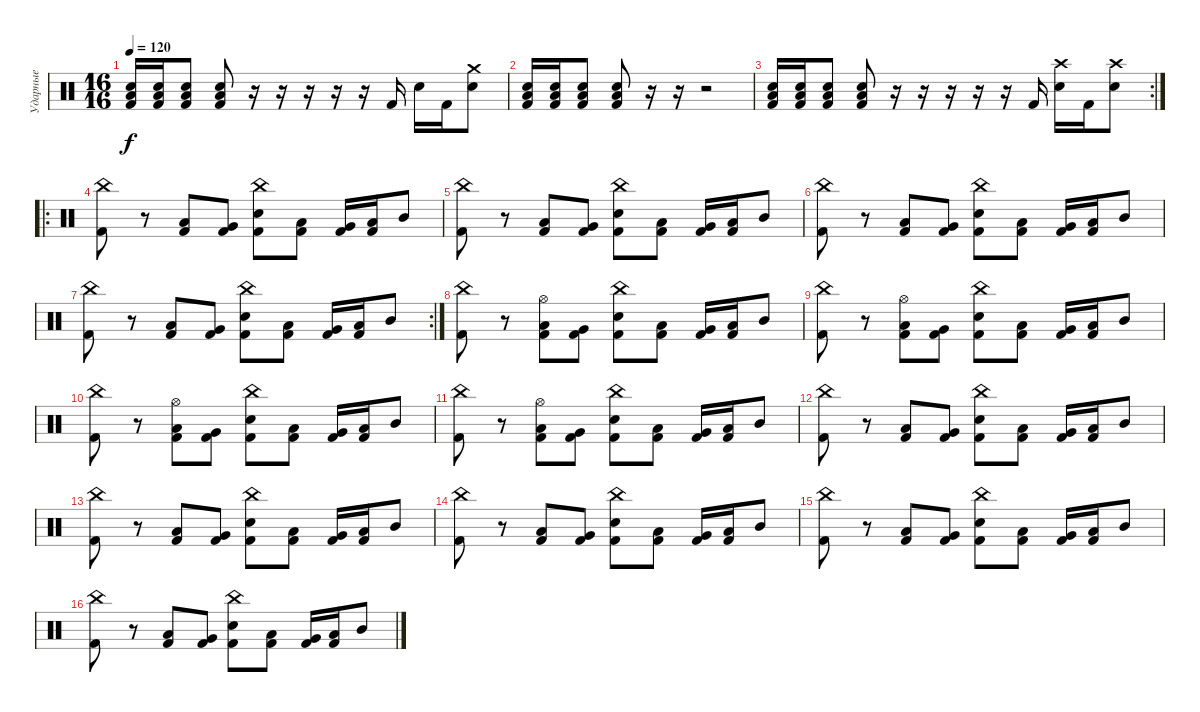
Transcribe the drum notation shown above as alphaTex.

\track ("Ударные" "Ударные") {instrument percussion}
\staff {score}
\articulation defaults
\ts (16 16)
\tempo 120
\clef neutral
\ks c
("Electric Snare (hit)" "Low Floor Tom (hit)" "Kick (hit) 2").16{dy f} ("Electric Snare (hit)" "Low Floor Tom (hit)" "Kick (hit) 2").16 ("Electric Snare (hit)" "Low Floor Tom (hit)" "Kick (hit) 2").8 ("Electric Snare (hit)" "Low Floor Tom (hit)" "Kick (hit) 2").8 r.16 r.16 r.16 r.16 r.16 "Kick (hit) 2".16 "Electric Snare (hit)".16 "Kick (hit) 2".16 ("Crash medium (hit)" "Electric Snare (hit)").8 |
("Electric Snare (hit)" "Low Floor Tom (hit)" "Kick (hit) 2").16 ("Electric Snare (hit)" "Low Floor Tom (hit)" "Kick (hit) 2").16 ("Electric Snare (hit)" "Low Floor Tom (hit)" "Kick (hit) 2").8 ("Electric Snare (hit)" "Low Floor Tom (hit)" "Kick (hit) 2").8 r.16 r.16 r.2 |
\rc 2
("Electric Snare (hit)" "Low Floor Tom (hit)" "Kick (hit) 2").16 ("Electric Snare (hit)" "Low Floor Tom (hit)" "Kick (hit) 2").16 ("Electric Snare (hit)" "Low Floor Tom (hit)" "Kick (hit) 2").8 ("Electric Snare (hit)" "Low Floor Tom (hit)" "Kick (hit) 2").8 r.16 r.16 r.16 r.16 r.16 "Kick (hit) 2".16 ("Crash high (hit)" "Electric Snare (hit)").16 "Kick (hit) 2".16 ("Crash high (hit)" "Electric Snare (hit)").8 |
\ro
("China (hit)" "Kick (hit) 2").8 r.8 ("Low Tom (hit)" "Kick (hit) 2").8 ("Very Low Tom (hit)" "Kick (hit) 2").8 ("China (hit)" "Electric Snare (hit)" "Kick (hit) 2").8 ("Low Tom (hit)" "Kick (hit) 2").8 ("Very Low Tom (hit)" "Kick (hit) 2").16 ("Low Tom (hit)" "Kick (hit) 2").16 "Mid Tom (hit)".8 |
("China (hit)" "Kick (hit) 2").8 r.8 ("Low Tom (hit)" "Kick (hit) 2").8 ("Very Low Tom (hit)" "Kick (hit) 2").8 ("China (hit)" "Electric Snare (hit)" "Kick (hit) 2").8 ("Low Tom (hit)" "Kick (hit) 2").8 ("Very Low Tom (hit)" "Kick (hit) 2").16 ("Low Tom (hit)" "Kick (hit) 2").16 "Mid Tom (hit)".8 |
("China (hit)" "Kick (hit) 2").8 r.8 ("Low Tom (hit)" "Kick (hit) 2").8 ("Very Low Tom (hit)" "Kick (hit) 2").8 ("China (hit)" "Electric Snare (hit)" "Kick (hit) 2").8 ("Low Tom (hit)" "Kick (hit) 2").8 ("Very Low Tom (hit)" "Kick (hit) 2").16 ("Low Tom (hit)" "Kick (hit) 2").16 "Mid Tom (hit)".8 |
\rc 2
("China (hit)" "Kick (hit) 2").8 r.8 ("Low Tom (hit)" "Kick (hit) 2").8 ("Very Low Tom (hit)" "Kick (hit) 2").8 ("China (hit)" "Electric Snare (hit)" "Kick (hit) 2").8 ("Low Tom (hit)" "Kick (hit) 2").8 ("Very Low Tom (hit)" "Kick (hit) 2").16 ("Low Tom (hit)" "Kick (hit) 2").16 "Mid Tom (hit)".8 |
("China (hit)" "Kick (hit) 2").8 r.8 ("Hi-Hat (open)" "Low Tom (hit)" "Kick (hit) 2").8 ("Very Low Tom (hit)" "Kick (hit) 2").8 ("China (hit)" "Electric Snare (hit)" "Kick (hit) 2").8 ("Low Tom (hit)" "Kick (hit) 2").8 ("Very Low Tom (hit)" "Kick (hit) 2").16 ("Low Tom (hit)" "Kick (hit) 2").16 "Mid Tom (hit)".8 |
("China (hit)" "Kick (hit) 2").8 r.8 ("Hi-Hat (open)" "Low Tom (hit)" "Kick (hit) 2").8 ("Very Low Tom (hit)" "Kick (hit) 2").8 ("China (hit)" "Electric Snare (hit)" "Kick (hit) 2").8 ("Low Tom (hit)" "Kick (hit) 2").8 ("Very Low Tom (hit)" "Kick (hit) 2").16 ("Low Tom (hit)" "Kick (hit) 2").16 "Mid Tom (hit)".8 |
("China (hit)" "Kick (hit) 2").8 r.8 ("Hi-Hat (open)" "Low Tom (hit)" "Kick (hit) 2").8 ("Very Low Tom (hit)" "Kick (hit) 2").8 ("China (hit)" "Electric Snare (hit)" "Kick (hit) 2").8 ("Low Tom (hit)" "Kick (hit) 2").8 ("Very Low Tom (hit)" "Kick (hit) 2").16 ("Low Tom (hit)" "Kick (hit) 2").16 "Mid Tom (hit)".8 |
("China (hit)" "Kick (hit) 2").8 r.8 ("Hi-Hat (open)" "Low Tom (hit)" "Kick (hit) 2").8 ("Very Low Tom (hit)" "Kick (hit) 2").8 ("China (hit)" "Electric Snare (hit)" "Kick (hit) 2").8 ("Low Tom (hit)" "Kick (hit) 2").8 ("Very Low Tom (hit)" "Kick (hit) 2").16 ("Low Tom (hit)" "Kick (hit) 2").16 "Mid Tom (hit)".8 |
("China (hit)" "Kick (hit) 2").8 r.8 ("Low Tom (hit)" "Kick (hit) 2").8 ("Very Low Tom (hit)" "Kick (hit) 2").8 ("China (hit)" "Electric Snare (hit)" "Kick (hit) 2").8 ("Low Tom (hit)" "Kick (hit) 2").8 ("Very Low Tom (hit)" "Kick (hit) 2").16 ("Low Tom (hit)" "Kick (hit) 2").16 "Mid Tom (hit)".8 |
("China (hit)" "Kick (hit) 2").8 r.8 ("Low Tom (hit)" "Kick (hit) 2").8 ("Very Low Tom (hit)" "Kick (hit) 2").8 ("China (hit)" "Electric Snare (hit)" "Kick (hit) 2").8 ("Low Tom (hit)" "Kick (hit) 2").8 ("Very Low Tom (hit)" "Kick (hit) 2").16 ("Low Tom (hit)" "Kick (hit) 2").16 "Mid Tom (hit)".8 |
("China (hit)" "Kick (hit) 2").8 r.8 ("Low Tom (hit)" "Kick (hit) 2").8 ("Very Low Tom (hit)" "Kick (hit) 2").8 ("China (hit)" "Electric Snare (hit)" "Kick (hit) 2").8 ("Low Tom (hit)" "Kick (hit) 2").8 ("Very Low Tom (hit)" "Kick (hit) 2").16 ("Low Tom (hit)" "Kick (hit) 2").16 "Mid Tom (hit)".8 |
("China (hit)" "Kick (hit) 2").8 r.8 ("Low Tom (hit)" "Kick (hit) 2").8 ("Very Low Tom (hit)" "Kick (hit) 2").8 ("China (hit)" "Electric Snare (hit)" "Kick (hit) 2").8 ("Low Tom (hit)" "Kick (hit) 2").8 ("Very Low Tom (hit)" "Kick (hit) 2").16 ("Low Tom (hit)" "Kick (hit) 2").16 "Mid Tom (hit)".8 |
("China (hit)" "Kick (hit) 2").8 r.8 ("Low Tom (hit)" "Kick (hit) 2").8 ("Very Low Tom (hit)" "Kick (hit) 2").8 ("China (hit)" "Electric Snare (hit)" "Kick (hit) 2").8 ("Low Tom (hit)" "Kick (hit) 2").8 ("Very Low Tom (hit)" "Kick (hit) 2").16 ("Low Tom (hit)" "Kick (hit) 2").16 "Mid Tom (hit)".8
